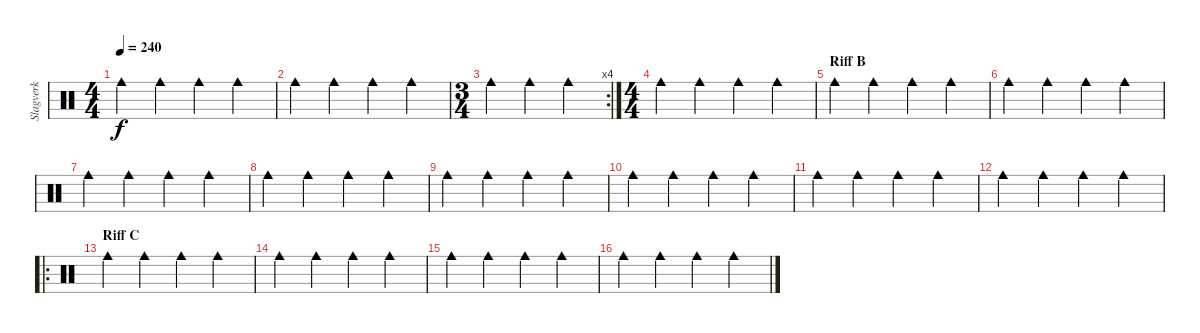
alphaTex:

\track ("Slagverk" "Slagverk") {instrument percussion}
\staff {score}
\articulation defaults
\ts (4 4)
\tempo 240
\clef neutral
\ks c "Cowbell medium (hit)".4{dy f} "Cowbell medium (hit)".4 "Cowbell medium (hit)".4 "Cowbell medium (hit)".4
|
"Cowbell medium (hit)".4 "Cowbell medium (hit)".4 "Cowbell medium (hit)".4 "Cowbell medium (hit)".4 |
\rc 4
\ts (3 4)
"Cowbell medium (hit)".4 "Cowbell medium (hit)".4 "Cowbell medium (hit)".4 |
\ts (4 4)
"Cowbell medium (hit)".4 "Cowbell medium (hit)".4 "Cowbell medium (hit)".4 "Cowbell medium (hit)".4 |
\section ("" "Riff B")
"Cowbell medium (hit)".4 "Cowbell medium (hit)".4 "Cowbell medium (hit)".4 "Cowbell medium (hit)".4 |
"Cowbell medium (hit)".4 "Cowbell medium (hit)".4 "Cowbell medium (hit)".4 "Cowbell medium (hit)".4 |
"Cowbell medium (hit)".4 "Cowbell medium (hit)".4 "Cowbell medium (hit)".4 "Cowbell medium (hit)".4 |
"Cowbell medium (hit)".4 "Cowbell medium (hit)".4 "Cowbell medium (hit)".4 "Cowbell medium (hit)".4 |
"Cowbell medium (hit)".4 "Cowbell medium (hit)".4 "Cowbell medium (hit)".4 "Cowbell medium (hit)".4 |
"Cowbell medium (hit)".4 "Cowbell medium (hit)".4 "Cowbell medium (hit)".4 "Cowbell medium (hit)".4 |
"Cowbell medium (hit)".4 "Cowbell medium (hit)".4 "Cowbell medium (hit)".4 "Cowbell medium (hit)".4 |
"Cowbell medium (hit)".4 "Cowbell medium (hit)".4 "Cowbell medium (hit)".4 "Cowbell medium (hit)".4 |
\ro
\section ("" "Riff C")
"Cowbell medium (hit)".4 "Cowbell medium (hit)".4 "Cowbell medium (hit)".4 "Cowbell medium (hit)".4 |
"Cowbell medium (hit)".4 "Cowbell medium (hit)".4 "Cowbell medium (hit)".4 "Cowbell medium (hit)".4 |
"Cowbell medium (hit)".4 "Cowbell medium (hit)".4 "Cowbell medium (hit)".4 "Cowbell medium (hit)".4 |
"Cowbell medium (hit)".4 "Cowbell medium (hit)".4 "Cowbell medium (hit)".4 "Cowbell medium (hit)".4
